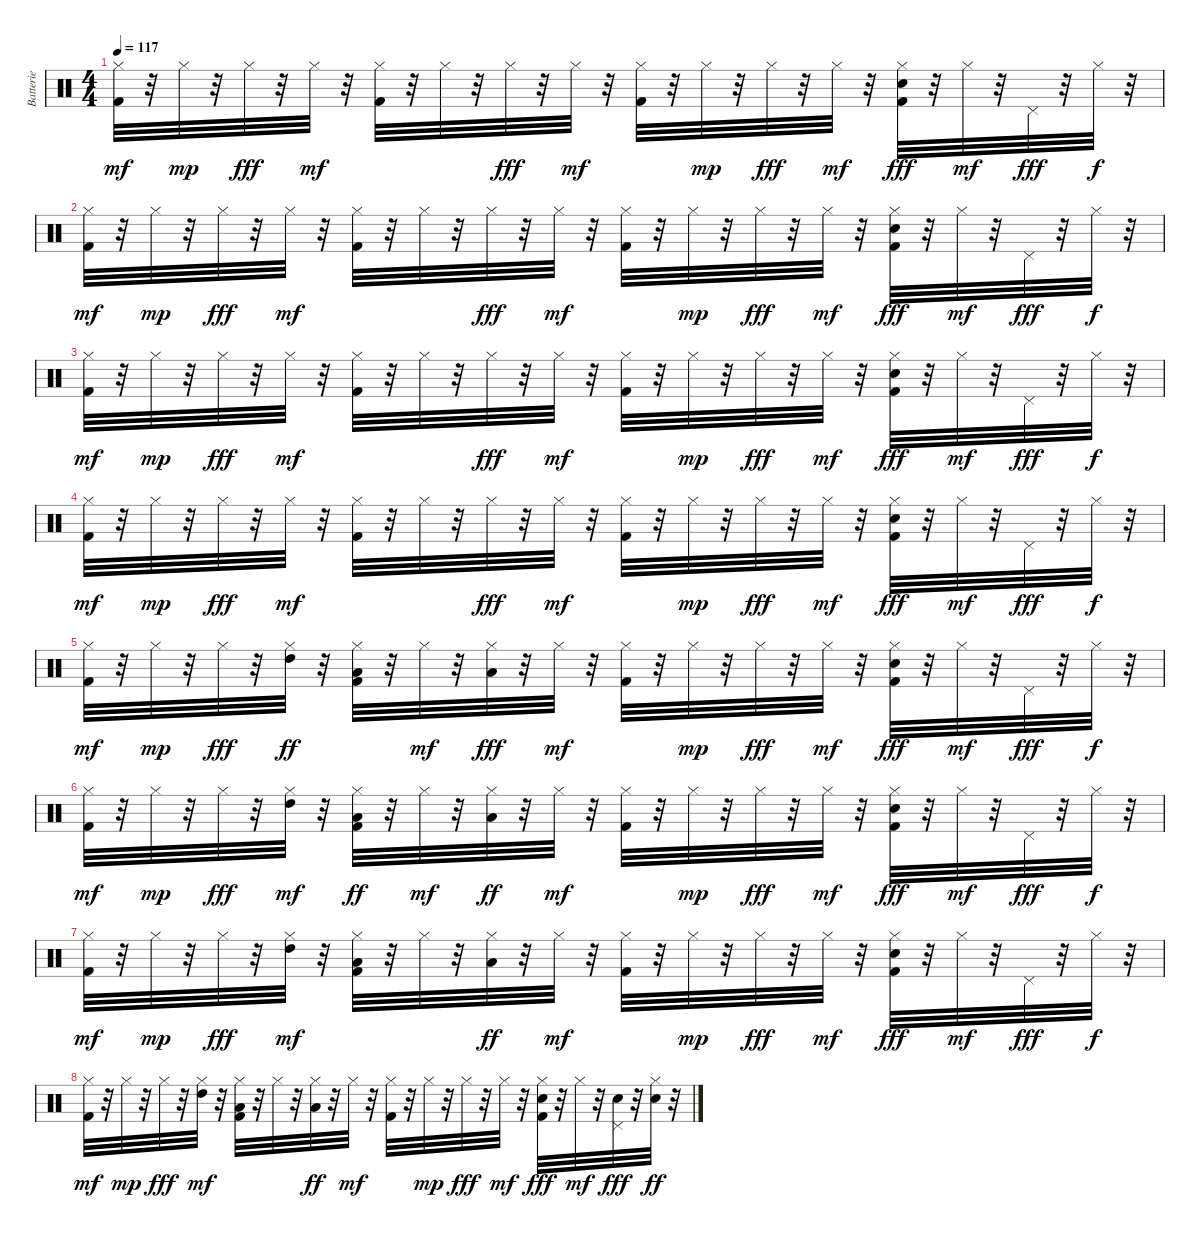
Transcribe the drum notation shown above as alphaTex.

\track ("Batterie" "Batterie") {instrument percussion}
\staff {score}
\articulation defaults
\ts (4 4)
\tempo 117
\clef neutral
\ks c
("Kick (hit) 2" "Hi-Hat (closed)").32{dy mf} r.32 "Hi-Hat (closed)".32{dy mp} r.32 "Hi-Hat (closed)".32{dy fff} r.32 "Hi-Hat (closed)".32{dy mf} r.32 ("Kick (hit) 2" "Hi-Hat (closed)").32 r.32 "Hi-Hat (closed)".32 r.32 "Hi-Hat (closed)".32{dy fff} r.32 "Hi-Hat (closed)".32{dy mf} r.32 ("Kick (hit) 2" "Hi-Hat (closed)").32 r.32 "Hi-Hat (closed)".32{dy mp} r.32 "Hi-Hat (closed)".32{dy fff} r.32 "Hi-Hat (closed)".32{dy mf} r.32 ("Kick (hit) 2" "Electric Snare (hit)" "Hi-Hat (closed)").32{dy fff} r.32 "Hi-Hat (closed)".32{dy mf} r.32 "Pedal Hi-Hat (hit)".32{dy fff} r.32 "Hi-Hat (closed)".32{dy f} r.32 |
("Kick (hit) 2" "Hi-Hat (closed)").32{dy mf} r.32 "Hi-Hat (closed)".32{dy mp} r.32 "Hi-Hat (closed)".32{dy fff} r.32 "Hi-Hat (closed)".32{dy mf} r.32 ("Kick (hit) 2" "Hi-Hat (closed)").32 r.32 "Hi-Hat (closed)".32 r.32 "Hi-Hat (closed)".32{dy fff} r.32 "Hi-Hat (closed)".32{dy mf} r.32 ("Kick (hit) 2" "Hi-Hat (closed)").32 r.32 "Hi-Hat (closed)".32{dy mp} r.32 "Hi-Hat (closed)".32{dy fff} r.32 "Hi-Hat (closed)".32{dy mf} r.32 ("Kick (hit) 2" "Electric Snare (hit)" "Hi-Hat (closed)").32{dy fff} r.32 "Hi-Hat (closed)".32{dy mf} r.32 "Pedal Hi-Hat (hit)".32{dy fff} r.32 "Hi-Hat (closed)".32{dy f} r.32 |
("Kick (hit) 2" "Hi-Hat (closed)").32{dy mf} r.32 "Hi-Hat (closed)".32{dy mp} r.32 "Hi-Hat (closed)".32{dy fff} r.32 "Hi-Hat (closed)".32{dy mf} r.32 ("Kick (hit) 2" "Hi-Hat (closed)").32 r.32 "Hi-Hat (closed)".32 r.32 "Hi-Hat (closed)".32{dy fff} r.32 "Hi-Hat (closed)".32{dy mf} r.32 ("Kick (hit) 2" "Hi-Hat (closed)").32 r.32 "Hi-Hat (closed)".32{dy mp} r.32 "Hi-Hat (closed)".32{dy fff} r.32 "Hi-Hat (closed)".32{dy mf} r.32 ("Kick (hit) 2" "Electric Snare (hit)" "Hi-Hat (closed)").32{dy fff} r.32 "Hi-Hat (closed)".32{dy mf} r.32 "Pedal Hi-Hat (hit)".32{dy fff} r.32 "Hi-Hat (closed)".32{dy f} r.32 |
("Kick (hit) 2" "Hi-Hat (closed)").32{dy mf} r.32 "Hi-Hat (closed)".32{dy mp} r.32 "Hi-Hat (closed)".32{dy fff} r.32 "Hi-Hat (closed)".32{dy mf} r.32 ("Kick (hit) 2" "Hi-Hat (closed)").32 r.32 "Hi-Hat (closed)".32 r.32 "Hi-Hat (closed)".32{dy fff} r.32 "Hi-Hat (closed)".32{dy mf} r.32 ("Kick (hit) 2" "Hi-Hat (closed)").32 r.32 "Hi-Hat (closed)".32{dy mp} r.32 "Hi-Hat (closed)".32{dy fff} r.32 "Hi-Hat (closed)".32{dy mf} r.32 ("Kick (hit) 2" "Electric Snare (hit)" "Hi-Hat (closed)").32{dy fff} r.32 "Hi-Hat (closed)".32{dy mf} r.32 "Pedal Hi-Hat (hit)".32{dy fff} r.32 "Hi-Hat (closed)".32{dy f} r.32 |
("Kick (hit) 2" "Hi-Hat (closed)").32{dy mf} r.32 "Hi-Hat (closed)".32{dy mp} r.32 "Hi-Hat (closed)".32{dy fff} r.32 ("Hi-Hat (closed)" "High Tom (hit)").32{dy ff} r.32 ("Kick (hit) 2" "Hi-Hat (closed)" "Low Tom (hit)").32 r.32 "Hi-Hat (closed)".32{dy mf} r.32 ("Hi-Hat (closed)" "Low Floor Tom (hit)").32{dy fff} r.32 "Hi-Hat (closed)".32{dy mf} r.32 ("Kick (hit) 2" "Hi-Hat (closed)").32 r.32 "Hi-Hat (closed)".32{dy mp} r.32 "Hi-Hat (closed)".32{dy fff} r.32 "Hi-Hat (closed)".32{dy mf} r.32 ("Kick (hit) 2" "Electric Snare (hit)" "Hi-Hat (closed)").32{dy fff} r.32 "Hi-Hat (closed)".32{dy mf} r.32 "Pedal Hi-Hat (hit)".32{dy fff} r.32 "Hi-Hat (closed)".32{dy f} r.32 |
("Kick (hit) 2" "Hi-Hat (closed)").32{dy mf} r.32 "Hi-Hat (closed)".32{dy mp} r.32 "Hi-Hat (closed)".32{dy fff} r.32 ("Hi-Hat (closed)" "High Tom (hit)").32{dy mf} r.32 ("Kick (hit) 2" "Hi-Hat (closed)" "Low Tom (hit)").32{dy ff} r.32 "Hi-Hat (closed)".32{dy mf} r.32 ("Hi-Hat (closed)" "Low Floor Tom (hit)").32{dy ff} r.32 "Hi-Hat (closed)".32{dy mf} r.32 ("Kick (hit) 2" "Hi-Hat (closed)").32 r.32 "Hi-Hat (closed)".32{dy mp} r.32 "Hi-Hat (closed)".32{dy fff} r.32 "Hi-Hat (closed)".32{dy mf} r.32 ("Kick (hit) 2" "Electric Snare (hit)" "Hi-Hat (closed)").32{dy fff} r.32 "Hi-Hat (closed)".32{dy mf} r.32 "Pedal Hi-Hat (hit)".32{dy fff} r.32 "Hi-Hat (closed)".32{dy f} r.32 |
("Kick (hit) 2" "Hi-Hat (closed)").32{dy mf} r.32 "Hi-Hat (closed)".32{dy mp} r.32 "Hi-Hat (closed)".32{dy fff} r.32 ("Hi-Hat (closed)" "High Tom (hit)").32{dy mf} r.32 ("Kick (hit) 2" "Hi-Hat (closed)" "Low Tom (hit)").32 r.32 "Hi-Hat (closed)".32 r.32 ("Hi-Hat (closed)" "Low Floor Tom (hit)").32{dy ff} r.32 "Hi-Hat (closed)".32{dy mf} r.32 ("Kick (hit) 2" "Hi-Hat (closed)").32 r.32 "Hi-Hat (closed)".32{dy mp} r.32 "Hi-Hat (closed)".32{dy fff} r.32 "Hi-Hat (closed)".32{dy mf} r.32 ("Kick (hit) 2" "Electric Snare (hit)" "Hi-Hat (closed)").32{dy fff} r.32 "Hi-Hat (closed)".32{dy mf} r.32 "Pedal Hi-Hat (hit)".32{dy fff} r.32 "Hi-Hat (closed)".32{dy f} r.32 |
("Kick (hit) 2" "Hi-Hat (closed)").32{dy mf} r.32 "Hi-Hat (closed)".32{dy mp} r.32 "Hi-Hat (closed)".32{dy fff} r.32 ("Hi-Hat (closed)" "High Tom (hit)").32{dy mf} r.32 ("Kick (hit) 2" "Hi-Hat (closed)" "Low Tom (hit)").32 r.32 "Hi-Hat (closed)".32 r.32 ("Hi-Hat (closed)" "Low Floor Tom (hit)").32{dy ff} r.32 "Hi-Hat (closed)".32{dy mf} r.32 ("Kick (hit) 2" "Hi-Hat (closed)").32 r.32 "Hi-Hat (closed)".32{dy mp} r.32 "Hi-Hat (closed)".32{dy fff} r.32 "Hi-Hat (closed)".32{dy mf} r.32 ("Kick (hit) 2" "Electric Snare (hit)" "Hi-Hat (closed)").32{dy fff} r.32 "Hi-Hat (closed)".32{dy mf} r.32 ("Electric Snare (hit)" "Pedal Hi-Hat (hit)").32{dy fff} r.32 ("Electric Snare (hit)" "Hi-Hat (closed)").32{dy ff} r.32
